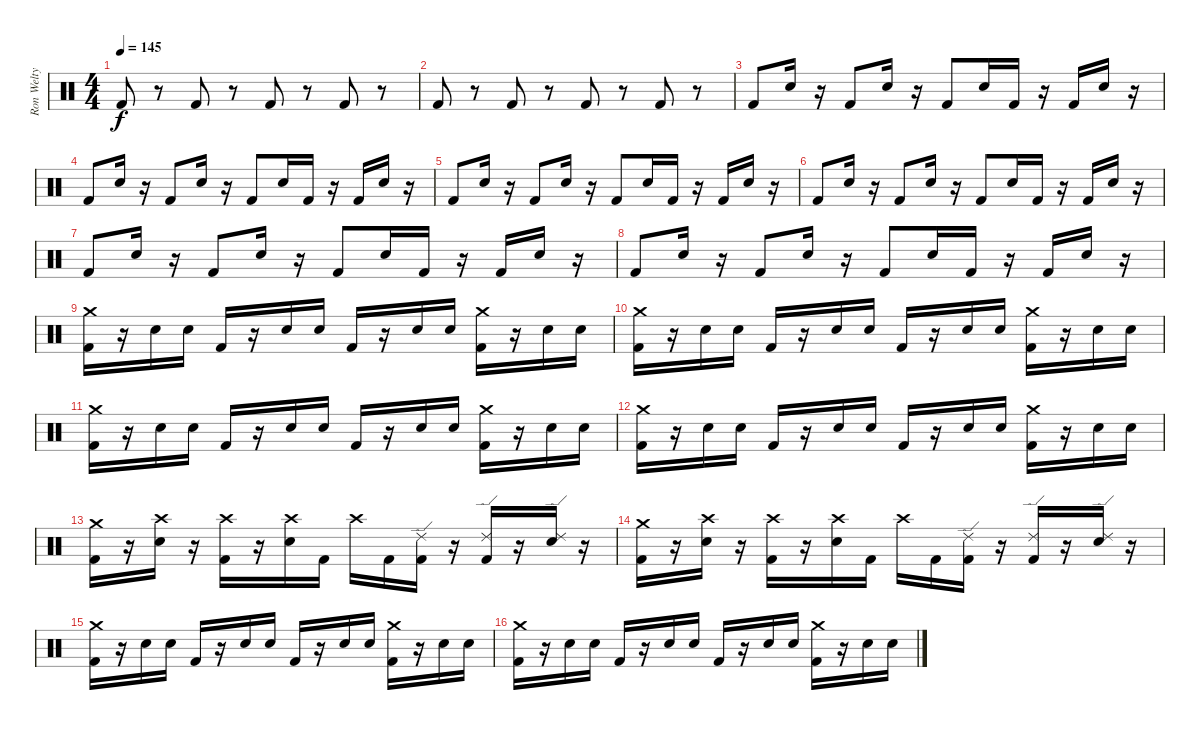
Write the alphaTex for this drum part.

\track ("Ron Welty" "Ron Welty") {instrument percussion}
\staff {score}
\articulation defaults
\ts (4 4)
\tempo 145
\clef neutral
\ks c "Kick (hit) 2".8{dy f}
r.8 "Kick (hit) 2".8 r.8 "Kick (hit) 2".8 r.8 "Kick (hit) 2".8 r.8 |
"Kick (hit) 2".8 r.8 "Kick (hit) 2".8 r.8 "Kick (hit) 2".8 r.8 "Kick (hit) 2".8 r.8 |
"Kick (hit) 2".8 "Snare (hit) 2".16 r.16 "Kick (hit) 2".8 "Snare (hit) 2".16 r.16 "Kick (hit) 2".8 "Snare (hit) 2".16 "Kick (hit) 2".16 r.16 "Kick (hit) 2".16 "Snare (hit) 2".16 r.16 |
"Kick (hit) 2".8 "Snare (hit) 2".16 r.16 "Kick (hit) 2".8 "Snare (hit) 2".16 r.16 "Kick (hit) 2".8 "Snare (hit) 2".16 "Kick (hit) 2".16 r.16 "Kick (hit) 2".16 "Snare (hit) 2".16 r.16 |
"Kick (hit) 2".8 "Snare (hit) 2".16 r.16 "Kick (hit) 2".8 "Snare (hit) 2".16 r.16 "Kick (hit) 2".8 "Snare (hit) 2".16 "Kick (hit) 2".16 r.16 "Kick (hit) 2".16 "Snare (hit) 2".16 r.16 |
"Kick (hit) 2".8 "Snare (hit) 2".16 r.16 "Kick (hit) 2".8 "Snare (hit) 2".16 r.16 "Kick (hit) 2".8 "Snare (hit) 2".16 "Kick (hit) 2".16 r.16 "Kick (hit) 2".16 "Snare (hit) 2".16 r.16 |
"Kick (hit) 2".8 "Snare (hit) 2".16 r.16 "Kick (hit) 2".8 "Snare (hit) 2".16 r.16 "Kick (hit) 2".8 "Snare (hit) 2".16 "Kick (hit) 2".16 r.16 "Kick (hit) 2".16 "Snare (hit) 2".16 r.16 |
"Kick (hit) 2".8 "Snare (hit) 2".16 r.16 "Kick (hit) 2".8 "Snare (hit) 2".16 r.16 "Kick (hit) 2".8 "Snare (hit) 2".16 "Kick (hit) 2".16 r.16 "Kick (hit) 2".16 "Snare (hit) 2".16 r.16 |
("Kick (hit) 2" "Crash medium (hit)").16 r.16 "Snare (hit) 2".16 "Snare (hit) 2".16 "Kick (hit) 2".16 r.16 "Snare (hit) 2".16 "Snare (hit) 2".16 "Kick (hit) 2".16 r.16 "Snare (hit) 2".16 "Snare (hit) 2".16 ("Kick (hit) 2" "Crash medium (hit)").16 r.16 "Snare (hit) 2".16 "Snare (hit) 2".16 |
("Kick (hit) 2" "Crash medium (hit)").16 r.16 "Snare (hit) 2".16 "Snare (hit) 2".16 "Kick (hit) 2".16 r.16 "Snare (hit) 2".16 "Snare (hit) 2".16 "Kick (hit) 2".16 r.16 "Snare (hit) 2".16 "Snare (hit) 2".16 ("Kick (hit) 2" "Crash medium (hit)").16 r.16 "Snare (hit) 2".16 "Snare (hit) 2".16 |
("Kick (hit) 2" "Crash medium (hit)").16 r.16 "Snare (hit) 2".16 "Snare (hit) 2".16 "Kick (hit) 2".16 r.16 "Snare (hit) 2".16 "Snare (hit) 2".16 "Kick (hit) 2".16 r.16 "Snare (hit) 2".16 "Snare (hit) 2".16 ("Kick (hit) 2" "Crash medium (hit)").16 r.16 "Snare (hit) 2".16 "Snare (hit) 2".16 |
("Kick (hit) 2" "Crash medium (hit)").16 r.16 "Snare (hit) 2".16 "Snare (hit) 2".16 "Kick (hit) 2".16 r.16 "Snare (hit) 2".16 "Snare (hit) 2".16 "Kick (hit) 2".16 r.16 "Snare (hit) 2".16 "Snare (hit) 2".16 ("Kick (hit) 2" "Crash medium (hit)").16 r.16 "Snare (hit) 2".16 "Snare (hit) 2".16 |
("Kick (hit) 2" "Crash medium (hit)").16 r.16 ("Snare (hit) 2" "Crash high (hit)").16 r.16 ("Kick (hit) 2" "Crash high (hit)").16 r.16 ("Snare (hit) 2" "Crash high (hit)").16 "Kick (hit) 2".16 "Crash high (hit)".16 "Kick (hit) 2".16 ("Kick (hit) 2" "Ride (edge) 2").16 r.16 ("Kick (hit) 2" "Ride (edge) 2").16 r.16 ("Snare (hit) 2" "Ride (edge) 2").16 r.16 |
("Kick (hit) 2" "Crash medium (hit)").16 r.16 ("Snare (hit) 2" "Crash high (hit)").16 r.16 ("Kick (hit) 2" "Crash high (hit)").16 r.16 ("Snare (hit) 2" "Crash high (hit)").16 "Kick (hit) 2".16 "Crash high (hit)".16 "Kick (hit) 2".16 ("Kick (hit) 2" "Ride (edge) 2").16 r.16 ("Kick (hit) 2" "Ride (edge) 2").16 r.16 ("Snare (hit) 2" "Ride (edge) 2").16 r.16 |
("Kick (hit) 2" "Crash medium (hit)").16 r.16 "Snare (hit) 2".16 "Snare (hit) 2".16 "Kick (hit) 2".16 r.16 "Snare (hit) 2".16 "Snare (hit) 2".16 "Kick (hit) 2".16 r.16 "Snare (hit) 2".16 "Snare (hit) 2".16 ("Kick (hit) 2" "Crash medium (hit)").16 r.16 "Snare (hit) 2".16 "Snare (hit) 2".16 |
("Kick (hit) 2" "Crash medium (hit)").16 r.16 "Snare (hit) 2".16 "Snare (hit) 2".16 "Kick (hit) 2".16 r.16 "Snare (hit) 2".16 "Snare (hit) 2".16 "Kick (hit) 2".16 r.16 "Snare (hit) 2".16 "Snare (hit) 2".16 ("Kick (hit) 2" "Crash medium (hit)").16 r.16 "Snare (hit) 2".16 "Snare (hit) 2".16
